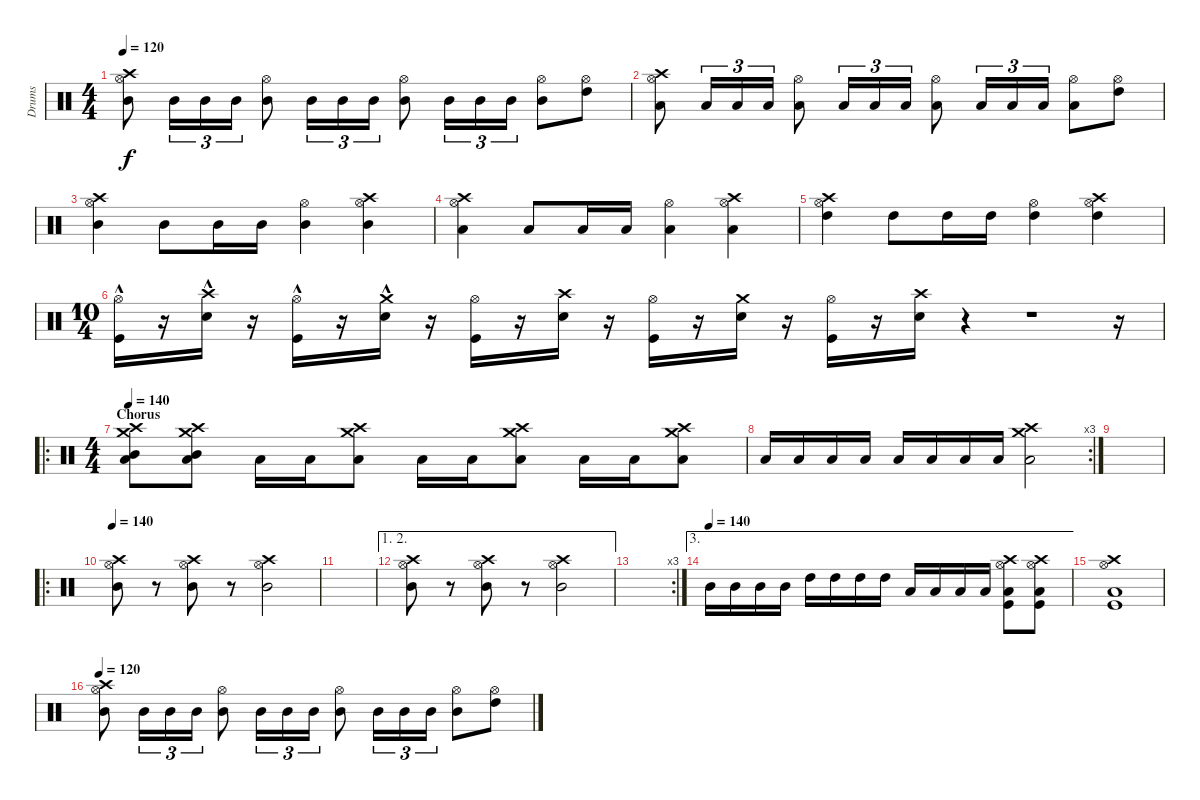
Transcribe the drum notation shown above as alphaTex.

\track ("Drums" "Drums") {instrument percussion}
\staff {score}
\articulation defaults
\ts (4 4)
\tempo 120
\clef neutral
\ks c
("Hi-Hat (open)" "Mid Tom (hit)" "Crash high (hit)").8{dy f} "Mid Tom (hit)".16{tu (3 2)} "Mid Tom (hit)".16{tu (3 2)} "Mid Tom (hit)".16{tu (3 2)} ("Hi-Hat (open)" "Mid Tom (hit)").8 "Mid Tom (hit)".16{tu (3 2)} "Mid Tom (hit)".16{tu (3 2)} "Mid Tom (hit)".16{tu (3 2)} ("Hi-Hat (open)" "Mid Tom (hit)").8 "Mid Tom (hit)".16{tu (3 2)} "Mid Tom (hit)".16{tu (3 2)} "Mid Tom (hit)".16{tu (3 2)} ("Hi-Hat (open)" "Mid Tom (hit)").8 ("Hi-Hat (open)" "High Tom (hit)").8 |
("Hi-Hat (open)" "Low Tom (hit)" "Crash high (hit)").8 "Low Tom (hit)".16{tu (3 2)} "Low Tom (hit)".16{tu (3 2)} "Low Tom (hit)".16{tu (3 2)} ("Hi-Hat (open)" "Low Tom (hit)").8 "Low Tom (hit)".16{tu (3 2)} "Low Tom (hit)".16{tu (3 2)} "Low Tom (hit)".16{tu (3 2)} ("Hi-Hat (open)" "Low Tom (hit)").8 "Low Tom (hit)".16{tu (3 2)} "Low Tom (hit)".16{tu (3 2)} "Low Tom (hit)".16{tu (3 2)} ("Hi-Hat (open)" "Low Tom (hit)").8 ("Hi-Hat (open)" "High Tom (hit)").8 |
("Hi-Hat (open)" "Mid Tom (hit)" "Crash high (hit)").4 "Mid Tom (hit)".8 "Mid Tom (hit)".16 "Mid Tom (hit)".16 ("Hi-Hat (open)" "Mid Tom (hit)").4 ("Hi-Hat (open)" "Mid Tom (hit)" "Crash high (hit)").4 |
("Hi-Hat (open)" "Low Tom (hit)" "Crash high (hit)").4 "Low Tom (hit)".8 "Low Tom (hit)".16 "Low Tom (hit)".16 ("Hi-Hat (open)" "Low Tom (hit)").4 ("Hi-Hat (open)" "Low Tom (hit)" "Crash high (hit)").4 |
("Hi-Hat (open)" "High Tom (hit)" "Crash high (hit)").4 "High Tom (hit)".8 "High Tom (hit)".16 "High Tom (hit)".16 ("Hi-Hat (open)" "High Tom (hit)").4 ("Hi-Hat (open)" "High Tom (hit)" "Crash high (hit)").4 |
\ts (10 4)
("Hi-Hat (open)" "Kick (hit)"{hac}).16 r.16 ("Crash high (hit)" "Snare (hit) 2"{hac}).16 r.16 ("Hi-Hat (open)" "Kick (hit)"{hac}).16 r.16 ("Crash medium (hit)" "Snare (hit) 2"{hac}).16 r.16 ("Hi-Hat (open)" "Kick (hit)").16 r.16 ("Crash high (hit)" "Snare (hit) 2").16 r.16 ("Hi-Hat (open)" "Kick (hit)").16 r.16 ("Crash medium (hit)" "Snare (hit) 2").16 r.16 ("Hi-Hat (open)" "Kick (hit)").16 r.16 ("Crash high (hit)" "Snare (hit) 2").16 r.4 r.1 r.16 |
\ro
\ts (4 4)
\section ("" "Chorus")
\tempo 140
("Low Tom (hit)" "Mid Tom (hit)" "Crash high (hit)" "Crash medium (hit)").8 ("Low Tom (hit)" "Mid Tom (hit)" "Crash high (hit)" "Crash medium (hit)").8 "Low Tom (hit)".16 "Low Tom (hit)".16 ("Crash high (hit)" "Crash medium (hit)" "Low Tom (hit)").8 "Low Tom (hit)".16 "Low Tom (hit)".16 ("Crash high (hit)" "Crash medium (hit)" "Low Tom (hit)").8 "Low Tom (hit)".16 "Low Tom (hit)".16 ("Crash high (hit)" "Crash medium (hit)" "Low Tom (hit)").8 |
\rc 3 "Low Tom (hit)".16 "Low Tom (hit)".16 "Low Tom (hit)".16 "Low Tom (hit)".16 "Low Tom (hit)".16 "Low Tom (hit)".16 "Low Tom (hit)".16 "Low Tom (hit)".16
("Crash high (hit)" "Crash medium (hit)" "Low Tom (hit)").2 |
|
\ro
\tempo 140
("Hi-Hat (open)" "Crash high (hit)" "Mid Tom (hit)").8{volume 16} r.8 ("Hi-Hat (open)" "Crash high (hit)" "Mid Tom (hit)").8 r.8 ("Hi-Hat (open)" "Crash high (hit)" "Mid Tom (hit)").2 |
|
\ae (1 2)
("Hi-Hat (open)" "Crash high (hit)" "Mid Tom (hit)").8 r.8 ("Hi-Hat (open)" "Crash high (hit)" "Mid Tom (hit)").8 r.8 ("Hi-Hat (open)" "Crash high (hit)" "Mid Tom (hit)").2 |
\rc 3
|
\ae 3
\tempo (140)
"Mid Tom (hit)".16 "Mid Tom (hit)".16 "Mid Tom (hit)".16 "Mid Tom (hit)".16 "High Tom (hit)".16 "High Tom (hit)".16 "High Tom (hit)".16 "High Tom (hit)".16 "Low Tom (hit)".16 "Low Tom (hit)".16 "Low Tom (hit)".16 "Low Tom (hit)".16 ("Kick (hit)" "Low Tom (hit)" "Crash high (hit)" "Hi-Hat (open)").8 ("Kick (hit)" "Low Tom (hit)" "Crash high (hit)" "Hi-Hat (open)").8 |
("Kick (hit)" "Low Tom (hit)" "Crash high (hit)" "Hi-Hat (open)").1 |
\tempo 120
("Hi-Hat (open)" "Mid Tom (hit)" "Crash high (hit)").8 "Mid Tom (hit)".16{tu (3 2)} "Mid Tom (hit)".16{tu (3 2)} "Mid Tom (hit)".16{tu (3 2)} ("Hi-Hat (open)" "Mid Tom (hit)").8 "Mid Tom (hit)".16{tu (3 2)} "Mid Tom (hit)".16{tu (3 2)} "Mid Tom (hit)".16{tu (3 2)} ("Hi-Hat (open)" "Mid Tom (hit)").8 "Mid Tom (hit)".16{tu (3 2)} "Mid Tom (hit)".16{tu (3 2)} "Mid Tom (hit)".16{tu (3 2)} ("Hi-Hat (open)" "Mid Tom (hit)").8 ("Hi-Hat (open)" "High Tom (hit)").8
